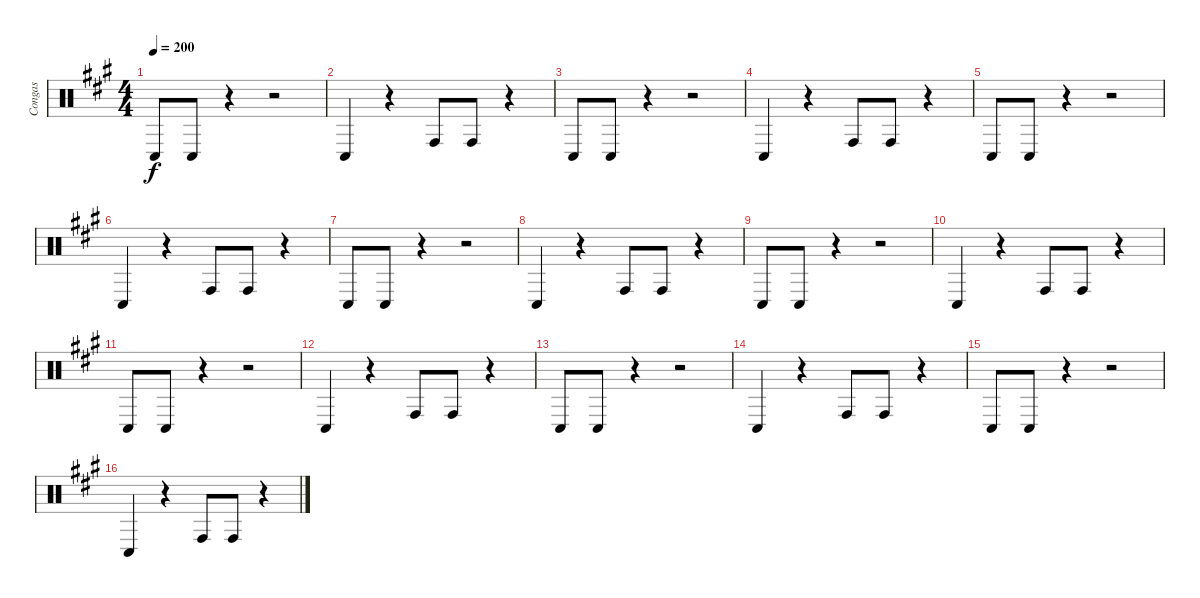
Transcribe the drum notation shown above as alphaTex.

\track ("Congas" "Congas") {instrument percussion}
\staff {score}
\articulation defaults
\ts (4 4)
\tempo 200
\clef neutral
\ks a "Conga low (hit)".8{dy f} "Conga low (hit)".8
r.4 r.2 |
"Conga low (hit)".4 r.4 "Conga high (hit)".8 "Conga high (hit)".8 r.4 |
"Conga low (hit)".8 "Conga low (hit)".8 r.4 r.2 |
"Conga low (hit)".4 r.4 "Conga high (hit)".8 "Conga high (hit)".8 r.4 |
"Conga low (hit)".8 "Conga low (hit)".8 r.4 r.2 |
"Conga low (hit)".4 r.4 "Conga high (hit)".8 "Conga high (hit)".8 r.4 |
"Conga low (hit)".8 "Conga low (hit)".8 r.4 r.2 |
"Conga low (hit)".4 r.4 "Conga high (hit)".8 "Conga high (hit)".8 r.4 |
"Conga low (hit)".8 "Conga low (hit)".8 r.4 r.2 |
"Conga low (hit)".4 r.4 "Conga high (hit)".8 "Conga high (hit)".8 r.4 |
"Conga low (hit)".8 "Conga low (hit)".8 r.4 r.2 |
"Conga low (hit)".4 r.4 "Conga high (hit)".8 "Conga high (hit)".8 r.4 |
"Conga low (hit)".8 "Conga low (hit)".8 r.4 r.2 |
"Conga low (hit)".4 r.4 "Conga high (hit)".8 "Conga high (hit)".8 r.4 |
"Conga low (hit)".8 "Conga low (hit)".8 r.4 r.2 |
"Conga low (hit)".4 r.4 "Conga high (hit)".8 "Conga high (hit)".8 r.4
